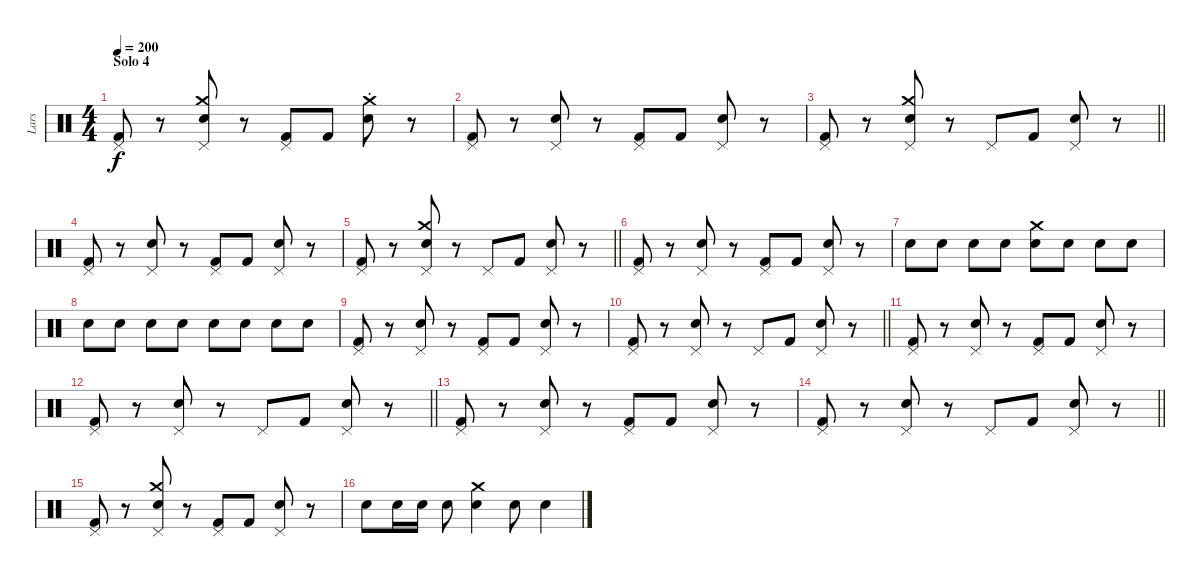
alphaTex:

\track ("Lars" "Lars") {instrument percussion}
\staff {score}
\articulation defaults
\ts (4 4)
\section ("" "Solo 4")
\tempo 200
\clef neutral
\ks c
("Pedal Hi-Hat (hit)" "Kick (hit) 2").8{dy f} r.8 ("Crash medium (hit)" "Pedal Hi-Hat (hit)" "Snare (hit) 2").8 r.8 ("Pedal Hi-Hat (hit)" "Kick (hit) 2").8 "Kick (hit) 2".8 ("Crash medium (hit)"{st} "Snare (hit) 2").8 r.8 |
("Pedal Hi-Hat (hit)" "Kick (hit) 2").8 r.8 ("Pedal Hi-Hat (hit)" "Snare (hit) 2").8 r.8 ("Pedal Hi-Hat (hit)" "Kick (hit) 2").8 "Kick (hit) 2".8 ("Pedal Hi-Hat (hit)" "Snare (hit) 2").8 r.8 |
\barLineRight lightlight
("Pedal Hi-Hat (hit)" "Kick (hit) 2").8 r.8 ("Crash medium (hit)" "Pedal Hi-Hat (hit)" "Snare (hit) 2").8 r.8 "Pedal Hi-Hat (hit)".8 "Kick (hit) 2".8 ("Pedal Hi-Hat (hit)" "Snare (hit) 2").8 r.8 |
("Pedal Hi-Hat (hit)" "Kick (hit) 2").8 r.8 ("Pedal Hi-Hat (hit)" "Snare (hit) 2").8 r.8 ("Pedal Hi-Hat (hit)" "Kick (hit) 2").8 "Kick (hit) 2".8 ("Pedal Hi-Hat (hit)" "Snare (hit) 2").8 r.8 |
\barLineRight lightlight
("Pedal Hi-Hat (hit)" "Kick (hit) 2").8 r.8 ("Crash medium (hit)" "Pedal Hi-Hat (hit)" "Snare (hit) 2").8 r.8 "Pedal Hi-Hat (hit)".8 "Kick (hit) 2".8 ("Pedal Hi-Hat (hit)" "Snare (hit) 2").8 r.8 |
("Pedal Hi-Hat (hit)" "Kick (hit) 2").8 r.8 ("Pedal Hi-Hat (hit)" "Snare (hit) 2").8 r.8 ("Pedal Hi-Hat (hit)" "Kick (hit) 2").8 "Kick (hit) 2".8 ("Pedal Hi-Hat (hit)" "Snare (hit) 2").8 r.8 |
"Snare (hit) 2".8 "Snare (hit) 2".8 "Snare (hit) 2".8 "Snare (hit) 2".8 ("Crash medium (hit)" "Snare (hit) 2").8 "Snare (hit) 2".8 "Snare (hit) 2".8 "Snare (hit) 2".8 |
"Snare (hit) 2".8 "Snare (hit) 2".8 "Snare (hit) 2".8 "Snare (hit) 2".8 "Snare (hit) 2".8 "Snare (hit) 2".8 "Snare (hit) 2".8 "Snare (hit) 2".8 |
("Pedal Hi-Hat (hit)" "Kick (hit) 2").8 r.8 ("Pedal Hi-Hat (hit)" "Snare (hit) 2").8 r.8 ("Pedal Hi-Hat (hit)" "Kick (hit) 2").8 "Kick (hit) 2".8 ("Pedal Hi-Hat (hit)" "Snare (hit) 2").8 r.8 |
\barLineRight lightlight
("Pedal Hi-Hat (hit)" "Kick (hit) 2").8 r.8 ("Pedal Hi-Hat (hit)" "Snare (hit) 2").8 r.8 "Pedal Hi-Hat (hit)".8 "Kick (hit) 2".8 ("Pedal Hi-Hat (hit)" "Snare (hit) 2").8 r.8 |
("Pedal Hi-Hat (hit)" "Kick (hit) 2").8 r.8 ("Pedal Hi-Hat (hit)" "Snare (hit) 2").8 r.8 ("Pedal Hi-Hat (hit)" "Kick (hit) 2").8 "Kick (hit) 2".8 ("Pedal Hi-Hat (hit)" "Snare (hit) 2").8 r.8 |
\barLineRight lightlight
("Pedal Hi-Hat (hit)" "Kick (hit) 2").8 r.8 ("Pedal Hi-Hat (hit)" "Snare (hit) 2").8 r.8 "Pedal Hi-Hat (hit)".8 "Kick (hit) 2".8 ("Pedal Hi-Hat (hit)" "Snare (hit) 2").8 r.8 |
("Pedal Hi-Hat (hit)" "Kick (hit) 2").8 r.8 ("Pedal Hi-Hat (hit)" "Snare (hit) 2").8 r.8 ("Pedal Hi-Hat (hit)" "Kick (hit) 2").8 "Kick (hit) 2".8 ("Pedal Hi-Hat (hit)" "Snare (hit) 2").8 r.8 |
\barLineRight lightlight
("Pedal Hi-Hat (hit)" "Kick (hit) 2").8 r.8 ("Pedal Hi-Hat (hit)" "Snare (hit) 2").8 r.8 "Pedal Hi-Hat (hit)".8 "Kick (hit) 2".8 ("Pedal Hi-Hat (hit)" "Snare (hit) 2").8 r.8 |
("Pedal Hi-Hat (hit)" "Kick (hit) 2").8 r.8 ("Crash medium (hit)" "Pedal Hi-Hat (hit)" "Snare (hit) 2").8 r.8 ("Pedal Hi-Hat (hit)" "Kick (hit) 2").8 "Kick (hit) 2".8 ("Pedal Hi-Hat (hit)" "Snare (hit) 2").8 r.8 |
"Snare (hit) 2".8 "Snare (hit) 2".16 "Snare (hit) 2".16 "Snare (hit) 2".8 ("Crash medium (hit)" "Snare (hit) 2").4 "Snare (hit) 2".8 "Snare (hit) 2".4
